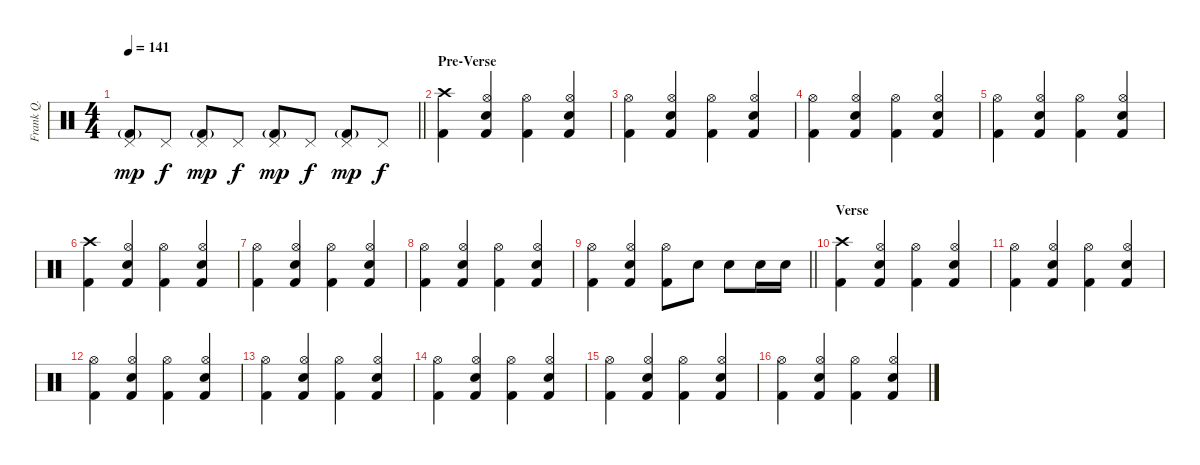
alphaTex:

\track ("Frank Q." "Frank Q.") {instrument percussion}
\staff {score}
\articulation defaults
\ts (4 4)
\tempo 141
\clef neutral
\barLineRight lightlight
\ks c
("Pedal Hi-Hat (hit)" "Kick (hit) 2"{g}).8{dy mp} "Pedal Hi-Hat (hit)".8{dy f} ("Pedal Hi-Hat (hit)" "Kick (hit) 2"{g}).8{dy mp} "Pedal Hi-Hat (hit)".8{dy f} ("Pedal Hi-Hat (hit)" "Kick (hit) 2"{g}).8{dy mp} "Pedal Hi-Hat (hit)".8{dy f} ("Pedal Hi-Hat (hit)" "Kick (hit) 2"{g}).8{dy mp} "Pedal Hi-Hat (hit)".8{dy f} |
\section ("" "Pre-Verse")
("Crash high (hit)" "Kick (hit) 2").4 ("Hi-Hat (open)" "Electric Snare (hit)" "Kick (hit) 2").4 ("Hi-Hat (open)" "Kick (hit) 2").4 ("Hi-Hat (open)" "Electric Snare (hit)" "Kick (hit) 2").4 |
("Hi-Hat (open)" "Kick (hit) 2").4 ("Hi-Hat (open)" "Electric Snare (hit)" "Kick (hit) 2").4 ("Hi-Hat (open)" "Kick (hit) 2").4 ("Hi-Hat (open)" "Electric Snare (hit)" "Kick (hit) 2").4 |
("Hi-Hat (open)" "Kick (hit) 2").4 ("Hi-Hat (open)" "Electric Snare (hit)" "Kick (hit) 2").4 ("Hi-Hat (open)" "Kick (hit) 2").4 ("Hi-Hat (open)" "Electric Snare (hit)" "Kick (hit) 2").4 |
("Hi-Hat (open)" "Kick (hit) 2").4 ("Hi-Hat (open)" "Electric Snare (hit)" "Kick (hit) 2").4 ("Hi-Hat (open)" "Kick (hit) 2").4 ("Hi-Hat (open)" "Electric Snare (hit)" "Kick (hit) 2").4 |
("Crash high (hit)" "Kick (hit) 2").4 ("Hi-Hat (open)" "Electric Snare (hit)" "Kick (hit) 2").4 ("Hi-Hat (open)" "Kick (hit) 2").4 ("Hi-Hat (open)" "Electric Snare (hit)" "Kick (hit) 2").4 |
("Hi-Hat (open)" "Kick (hit) 2").4 ("Hi-Hat (open)" "Electric Snare (hit)" "Kick (hit) 2").4 ("Hi-Hat (open)" "Kick (hit) 2").4 ("Hi-Hat (open)" "Electric Snare (hit)" "Kick (hit) 2").4 |
("Hi-Hat (open)" "Kick (hit) 2").4 ("Hi-Hat (open)" "Electric Snare (hit)" "Kick (hit) 2").4 ("Hi-Hat (open)" "Kick (hit) 2").4 ("Hi-Hat (open)" "Electric Snare (hit)" "Kick (hit) 2").4 |
\barLineRight lightlight
("Hi-Hat (open)" "Kick (hit) 2").4 ("Hi-Hat (open)" "Electric Snare (hit)" "Kick (hit) 2").4 ("Hi-Hat (open)" "Kick (hit) 2").8 "Electric Snare (hit)".8 "Electric Snare (hit)".8 "Electric Snare (hit)".16 "Electric Snare (hit)".16 |
\section ("" "Verse")
("Crash high (hit)" "Kick (hit) 2").4 ("Hi-Hat (open)" "Electric Snare (hit)" "Kick (hit) 2").4 ("Hi-Hat (open)" "Kick (hit) 2").4 ("Hi-Hat (open)" "Electric Snare (hit)" "Kick (hit) 2").4 |
("Hi-Hat (open)" "Kick (hit) 2").4 ("Hi-Hat (open)" "Electric Snare (hit)" "Kick (hit) 2").4 ("Hi-Hat (open)" "Kick (hit) 2").4 ("Hi-Hat (open)" "Electric Snare (hit)" "Kick (hit) 2").4 |
("Hi-Hat (open)" "Kick (hit) 2").4 ("Hi-Hat (open)" "Electric Snare (hit)" "Kick (hit) 2").4 ("Hi-Hat (open)" "Kick (hit) 2").4 ("Hi-Hat (open)" "Electric Snare (hit)" "Kick (hit) 2").4 |
("Hi-Hat (open)" "Kick (hit) 2").4 ("Hi-Hat (open)" "Electric Snare (hit)" "Kick (hit) 2").4 ("Hi-Hat (open)" "Kick (hit) 2").4 ("Hi-Hat (open)" "Electric Snare (hit)" "Kick (hit) 2").4 |
("Hi-Hat (open)" "Kick (hit) 2").4 ("Hi-Hat (open)" "Electric Snare (hit)" "Kick (hit) 2").4 ("Hi-Hat (open)" "Kick (hit) 2").4 ("Hi-Hat (open)" "Electric Snare (hit)" "Kick (hit) 2").4 |
("Hi-Hat (open)" "Kick (hit) 2").4 ("Hi-Hat (open)" "Electric Snare (hit)" "Kick (hit) 2").4 ("Hi-Hat (open)" "Kick (hit) 2").4 ("Hi-Hat (open)" "Electric Snare (hit)" "Kick (hit) 2").4 |
("Hi-Hat (open)" "Kick (hit) 2").4 ("Hi-Hat (open)" "Electric Snare (hit)" "Kick (hit) 2").4 ("Hi-Hat (open)" "Kick (hit) 2").4 ("Hi-Hat (open)" "Electric Snare (hit)" "Kick (hit) 2").4
